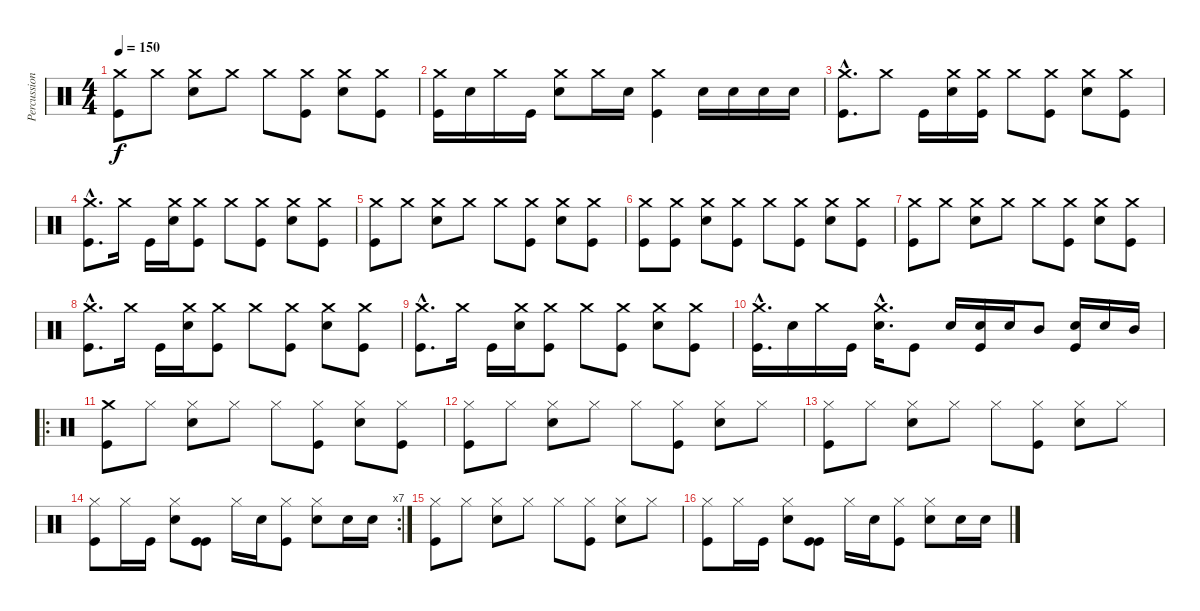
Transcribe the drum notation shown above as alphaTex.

\track ("Percussion" "Percussion") {instrument percussion}
\staff {score}
\articulation defaults
\ts (4 4)
\tempo 150
\clef neutral
\ks c
("Crash medium (hit)" "Kick (hit)").8{dy f} "Crash medium (hit)".8 ("Crash medium (hit)" "Electric Snare (hit)").8 "Crash medium (hit)".8 "Crash medium (hit)".8 ("Crash medium (hit)" "Kick (hit)").8 ("Crash medium (hit)" "Electric Snare (hit)").8 ("Crash medium (hit)" "Kick (hit)").8 |
("Crash medium (hit)" "Kick (hit)").16 "Electric Snare (hit)".16 "Crash medium (hit)".16 "Kick (hit)".16 ("Electric Snare (hit)" "Crash medium (hit)").8 "Crash medium (hit)".16 "Electric Snare (hit)".16 ("Kick (hit)" "Crash medium (hit)").4 "Electric Snare (hit)".16 "Electric Snare (hit)".16 "Electric Snare (hit)".16 "Electric Snare (hit)".16 |
("Crash medium (hit)"{hac} "Kick (hit)"{hac}).8{d} "Crash medium (hit)".8 "Kick (hit)".16 ("Crash medium (hit)" "Electric Snare (hit)").16 ("Kick (hit)" "Crash medium (hit)").16 "Crash medium (hit)".8 ("Crash medium (hit)" "Kick (hit)").8 ("Crash medium (hit)" "Electric Snare (hit)").8 ("Crash medium (hit)" "Kick (hit)").8 |
("Crash medium (hit)"{hac} "Kick (hit)"{hac}).8{d} "Crash medium (hit)".16 "Kick (hit)".16 ("Electric Snare (hit)" "Crash medium (hit)").16 ("Kick (hit)" "Crash medium (hit)").8 "Crash medium (hit)".8 ("Kick (hit)" "Crash medium (hit)").8 ("Electric Snare (hit)" "Crash medium (hit)").8 ("Kick (hit)" "Crash medium (hit)").8 |
("Kick (hit)" "Crash medium (hit)").8 "Crash medium (hit)".8 ("Electric Snare (hit)" "Crash medium (hit)").8 "Crash medium (hit)".8 "Crash medium (hit)".8 ("Kick (hit)" "Crash medium (hit)").8 ("Electric Snare (hit)" "Crash medium (hit)").8 ("Kick (hit)" "Crash medium (hit)").8 |
("Crash medium (hit)" "Kick (hit)").8 ("Crash medium (hit)" "Kick (hit)").8 ("Crash medium (hit)" "Electric Snare (hit)").8 ("Crash medium (hit)" "Kick (hit)").8 "Crash medium (hit)".8 ("Crash medium (hit)" "Kick (hit)").8 ("Crash medium (hit)" "Electric Snare (hit)").8 ("Crash medium (hit)" "Kick (hit)").8 |
("Kick (hit)" "Crash medium (hit)").8 "Crash medium (hit)".8 ("Electric Snare (hit)" "Crash medium (hit)").8 "Crash medium (hit)".8 "Crash medium (hit)".8 ("Kick (hit)" "Crash medium (hit)").8 ("Electric Snare (hit)" "Crash medium (hit)").8 ("Kick (hit)" "Crash medium (hit)").8 |
("Crash medium (hit)"{hac} "Kick (hit)"{hac}).8{d} "Crash medium (hit)".16 "Kick (hit)".16 ("Electric Snare (hit)" "Crash medium (hit)").16 ("Kick (hit)" "Crash medium (hit)").8 "Crash medium (hit)".8 ("Kick (hit)" "Crash medium (hit)").8 ("Electric Snare (hit)" "Crash medium (hit)").8 ("Kick (hit)" "Crash medium (hit)").8 |
("Crash medium (hit)"{hac} "Kick (hit)"{hac}).8{d} "Crash medium (hit)".16 "Kick (hit)".16 ("Electric Snare (hit)" "Crash medium (hit)").16 ("Kick (hit)" "Crash medium (hit)").8 "Crash medium (hit)".8 ("Kick (hit)" "Crash medium (hit)").8 ("Electric Snare (hit)" "Crash medium (hit)").8 ("Kick (hit)" "Crash medium (hit)").8 |
("Crash medium (hit)"{hac} "Kick (hit)"{hac}).16{d} "Electric Snare (hit)".16 "Crash medium (hit)".16 "Kick (hit)".16 ("Electric Snare (hit)"{hac} "Crash medium (hit)"{hac}).16{d} "Kick (hit)".8 "Electric Snare (hit)".16 ("Kick (hit)" "Electric Snare (hit)").16 "Electric Snare (hit)".16 "Mid Tom (hit)".8 ("Electric Snare (hit)" "Kick (hit)").16 "Electric Snare (hit)".16 "Mid Tom (hit)".16 |
\ro
("Kick (hit)" "Crash medium (hit)").8 "Hi-Hat (closed)".8 ("Hi-Hat (closed)" "Electric Snare (hit)").8 "Hi-Hat (closed)".8 "Hi-Hat (closed)".8 ("Kick (hit)" "Hi-Hat (closed)").8 ("Electric Snare (hit)" "Hi-Hat (closed)").8 ("Kick (hit)" "Hi-Hat (closed)").8 |
("Hi-Hat (closed)" "Kick (hit)").8 "Hi-Hat (closed)".8 ("Hi-Hat (closed)" "Electric Snare (hit)").8 "Hi-Hat (closed)".8 "Hi-Hat (closed)".8 ("Hi-Hat (closed)" "Kick (hit)").8 ("Hi-Hat (closed)" "Electric Snare (hit)").8 "Hi-Hat (closed)".8 |
("Hi-Hat (closed)" "Kick (hit)").8 "Hi-Hat (closed)".8 ("Hi-Hat (closed)" "Electric Snare (hit)").8 "Hi-Hat (closed)".8 "Hi-Hat (closed)".8 ("Hi-Hat (closed)" "Kick (hit)").8 ("Hi-Hat (closed)" "Electric Snare (hit)").8 "Hi-Hat (closed)".8 |
\rc 7
("Kick (hit)" "Hi-Hat (closed)").8 "Hi-Hat (closed)".16 "Kick (hit)".16 ("Electric Snare (hit)" "Hi-Hat (closed)").8 ("Kick (hit)" "Kick (hit)").8 "Hi-Hat (closed)".16 "Electric Snare (hit)".16 ("Kick (hit)" "Hi-Hat (closed)").8 ("Hi-Hat (closed)" "Electric Snare (hit)").8 "Electric Snare (hit)".16 "Electric Snare (hit)".16 |
("Hi-Hat (closed)" "Kick (hit)").8 "Hi-Hat (closed)".8 ("Hi-Hat (closed)" "Electric Snare (hit)").8 "Hi-Hat (closed)".8 "Hi-Hat (closed)".8 ("Hi-Hat (closed)" "Kick (hit)").8 ("Hi-Hat (closed)" "Electric Snare (hit)").8 "Hi-Hat (closed)".8 |
("Kick (hit)" "Hi-Hat (closed)").8 "Hi-Hat (closed)".16 "Kick (hit)".16 ("Electric Snare (hit)" "Hi-Hat (closed)").8 ("Kick (hit)" "Kick (hit)").8 "Hi-Hat (closed)".16 "Electric Snare (hit)".16 ("Kick (hit)" "Hi-Hat (closed)").8 ("Hi-Hat (closed)" "Electric Snare (hit)").8 "Electric Snare (hit)".16 "Electric Snare (hit)".16
